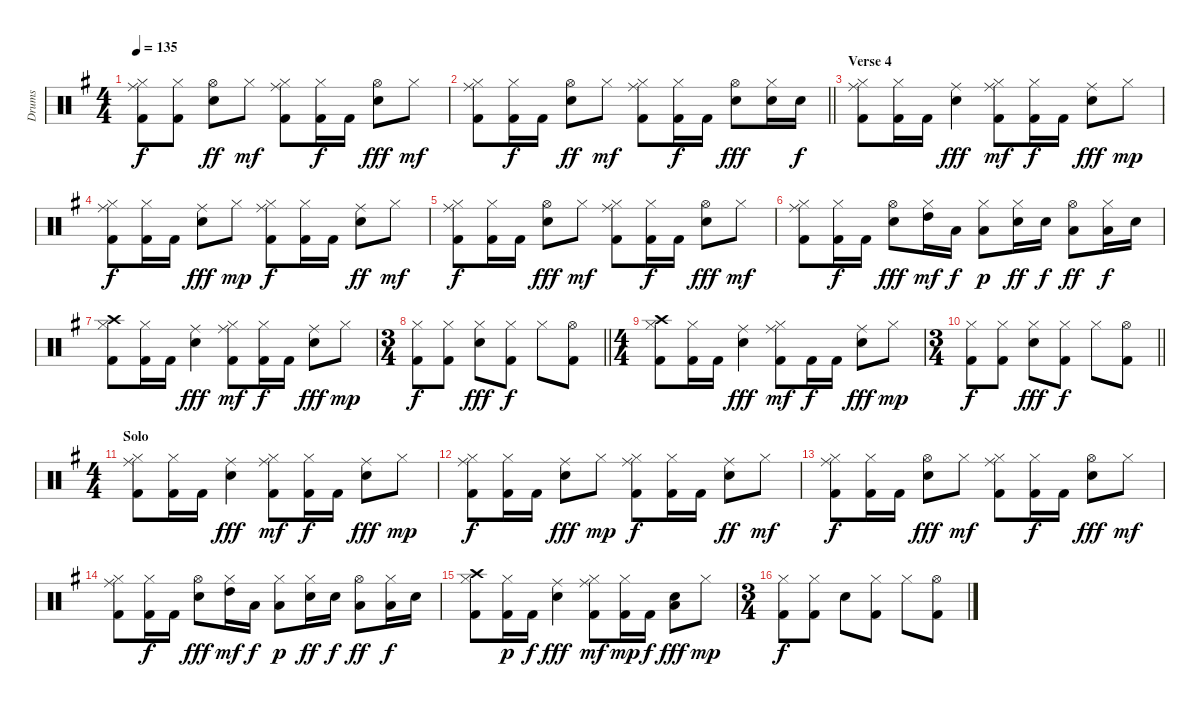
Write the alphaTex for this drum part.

\track ("Drums" "Drums") {instrument percussion}
\staff {score}
\articulation defaults
\ts (4 4)
\tempo 135
\clef neutral
\ks g
("Hi-Hat (closed)" "Ride (middle)" "Kick (hit) 2").8{dy f} ("Hi-Hat (closed)" "Kick (hit) 2").8 ("Hi-Hat (open)" "Electric Snare (hit)").8{dy ff} "Hi-Hat (closed)".8{dy mf} ("Hi-Hat (closed)" "Ride (middle)" "Kick (hit) 2").8 ("Hi-Hat (closed)" "Kick (hit) 2").16{dy f} "Kick (hit) 2".16 ("Hi-Hat (open)" "Electric Snare (hit)").8{dy fff} "Hi-Hat (closed)".8{dy mf} |
\barLineRight lightlight
("Hi-Hat (closed)" "Ride (middle)" "Kick (hit) 2").8 ("Hi-Hat (closed)" "Kick (hit) 2").16{dy f} "Kick (hit) 2".16 ("Hi-Hat (open)" "Electric Snare (hit)").8{dy ff} "Hi-Hat (closed)".8{dy mf} ("Hi-Hat (closed)" "Ride (middle)" "Kick (hit) 2").8 ("Hi-Hat (closed)" "Kick (hit) 2").16{dy f} "Kick (hit) 2".16 ("Hi-Hat (open)" "Electric Snare (hit)").8{dy fff} ("Hi-Hat (closed)" "Electric Snare (hit)").16 "Electric Snare (hit)".16{dy f} |
\section ("" "Verse 4")
("Hi-Hat (closed)" "Ride (middle)" "Kick (hit) 2").8 ("Hi-Hat (closed)" "Kick (hit) 2").16 "Kick (hit) 2".16 ("Ride (middle)" "Electric Snare (hit)").4{dy fff} ("Hi-Hat (closed)" "Ride (middle)" "Kick (hit) 2").8{dy mf} ("Hi-Hat (closed)" "Kick (hit) 2").16{dy f} "Kick (hit) 2".16 ("Ride (middle)" "Electric Snare (hit)").8{dy fff} "Hi-Hat (closed)".8{dy mp} |
("Hi-Hat (closed)" "Ride (middle)" "Kick (hit) 2").8{dy f} ("Hi-Hat (closed)" "Kick (hit) 2").16 "Kick (hit) 2".16 ("Ride (middle)" "Electric Snare (hit)").8{dy fff} "Hi-Hat (closed)".8{dy mp} ("Hi-Hat (closed)" "Ride (middle)" "Kick (hit) 2").8{dy f} ("Hi-Hat (closed)" "Kick (hit) 2").16 "Kick (hit) 2".16 ("Ride (middle)" "Electric Snare (hit)").8{dy ff} "Hi-Hat (closed)".8{dy mf} |
("Hi-Hat (closed)" "Ride (middle)" "Kick (hit) 2").8{dy f} ("Hi-Hat (closed)" "Kick (hit) 2").16 "Kick (hit) 2".16 ("Hi-Hat (open)" "Electric Snare (hit)").8{dy fff} "Hi-Hat (closed)".8{dy mf} ("Hi-Hat (closed)" "Ride (middle)" "Kick (hit) 2").8 ("Hi-Hat (closed)" "Kick (hit) 2").16{dy f} "Kick (hit) 2".16 ("Hi-Hat (open)" "Electric Snare (hit)").8{dy fff} "Hi-Hat (closed)".8{dy mf} |
("Hi-Hat (closed)" "Ride (middle)" "Kick (hit) 2").8 ("Hi-Hat (closed)" "Kick (hit) 2").16{dy f} "Kick (hit) 2".16 ("Hi-Hat (open)" "Electric Snare (hit)").8{dy fff} ("Hi-Hat (closed)" "High Tom (hit)").16{dy mf} "Low Tom (hit)".16{dy f} ("Hi-Hat (closed)" "Low Floor Tom (hit)").8{dy p} ("Hi-Hat (closed)" "Electric Snare (hit)").16{dy ff} "Electric Snare (hit)".16{dy f} ("Hi-Hat (open)" "Low Tom (hit)").8{dy ff} ("Hi-Hat (closed)" "Low Tom (hit)").16{dy f} "Electric Snare (hit)".16 |
("Hi-Hat (closed)" "Crash high (hit)" "Kick (hit) 2").8 ("Hi-Hat (closed)" "Kick (hit) 2").16 "Kick (hit) 2".16 ("Ride (middle)" "Electric Snare (hit)").4{dy fff} ("Hi-Hat (closed)" "Ride (middle)" "Kick (hit) 2").8{dy mf} ("Hi-Hat (closed)" "Kick (hit) 2").16{dy f} "Kick (hit) 2".16 ("Ride (middle)" "Electric Snare (hit)").8{dy fff} "Hi-Hat (closed)".8{dy mp} |
\ts (3 4)
\barLineRight lightlight
("Hi-Hat (closed)" "Kick (hit) 2").8{dy f} ("Hi-Hat (closed)" "Kick (hit) 2").8 ("Hi-Hat (closed)" "Electric Snare (hit)").8{dy fff} ("Hi-Hat (closed)" "Kick (hit) 2").8{dy f} "Hi-Hat (closed)".8 ("Hi-Hat (open)" "Kick (hit) 2").8 |
\ts (4 4)
("Hi-Hat (closed)" "Crash high (hit)" "Kick (hit) 2").8 ("Hi-Hat (closed)" "Kick (hit) 2").16 "Kick (hit) 2".16 ("Ride (middle)" "Electric Snare (hit)").4{dy fff} ("Hi-Hat (closed)" "Ride (middle)" "Kick (hit) 2").8{dy mf} "Kick (hit) 2".16{dy f} "Kick (hit) 2".16 ("Ride (middle)" "Electric Snare (hit)").8{dy fff} "Hi-Hat (closed)".8{dy mp} |
\ts (3 4)
\barLineRight lightlight
("Hi-Hat (closed)" "Kick (hit) 2").8{dy f} ("Hi-Hat (closed)" "Kick (hit) 2").8 ("Hi-Hat (closed)" "Electric Snare (hit)").8{dy fff} ("Hi-Hat (closed)" "Kick (hit) 2").8{dy f} "Hi-Hat (closed)".8 ("Hi-Hat (open)" "Kick (hit) 2").8 |
\ts (4 4)
\section ("" "Solo")
("Hi-Hat (closed)" "Ride (middle)" "Kick (hit) 2").8 ("Hi-Hat (closed)" "Kick (hit) 2").16 "Kick (hit) 2".16 ("Ride (middle)" "Electric Snare (hit)").4{dy fff} ("Hi-Hat (closed)" "Ride (middle)" "Kick (hit) 2").8{dy mf} ("Hi-Hat (closed)" "Kick (hit) 2").16{dy f} "Kick (hit) 2".16 ("Ride (middle)" "Electric Snare (hit)").8{dy fff} "Hi-Hat (closed)".8{dy mp} |
("Hi-Hat (closed)" "Ride (middle)" "Kick (hit) 2").8{dy f} ("Hi-Hat (closed)" "Kick (hit) 2").16 "Kick (hit) 2".16 ("Ride (middle)" "Electric Snare (hit)").8{dy fff} "Hi-Hat (closed)".8{dy mp} ("Hi-Hat (closed)" "Ride (middle)" "Kick (hit) 2").8{dy f} ("Hi-Hat (closed)" "Kick (hit) 2").16 "Kick (hit) 2".16 ("Ride (middle)" "Electric Snare (hit)").8{dy ff} "Hi-Hat (closed)".8{dy mf} |
("Hi-Hat (closed)" "Ride (middle)" "Kick (hit) 2").8{dy f} ("Hi-Hat (closed)" "Kick (hit) 2").16 "Kick (hit) 2".16 ("Hi-Hat (open)" "Electric Snare (hit)").8{dy fff} "Hi-Hat (closed)".8{dy mf} ("Hi-Hat (closed)" "Ride (middle)" "Kick (hit) 2").8 ("Hi-Hat (closed)" "Kick (hit) 2").16{dy f} "Kick (hit) 2".16 ("Hi-Hat (open)" "Electric Snare (hit)").8{dy fff} "Hi-Hat (closed)".8{dy mf} |
("Hi-Hat (closed)" "Ride (middle)" "Kick (hit) 2").8 ("Hi-Hat (closed)" "Kick (hit) 2").16{dy f} "Kick (hit) 2".16 ("Hi-Hat (open)" "Electric Snare (hit)").8{dy fff} ("Hi-Hat (closed)" "High Tom (hit)").16{dy mf} "Low Tom (hit)".16{dy f} ("Hi-Hat (closed)" "Low Floor Tom (hit)").8{dy p} ("Hi-Hat (closed)" "Electric Snare (hit)").16{dy ff} "Electric Snare (hit)".16{dy f} ("Hi-Hat (open)" "Low Tom (hit)").8{dy ff} ("Hi-Hat (closed)" "Low Tom (hit)").16{dy f} "Electric Snare (hit)".16 |
("Hi-Hat (closed)" "Crash high (hit)" "Kick (hit) 2").8 ("Hi-Hat (closed)" "Kick (hit) 2").16{dy p} "Kick (hit) 2".16{dy f} ("Ride (middle)" "Electric Snare (hit)").4{dy fff} ("Hi-Hat (closed)" "Ride (middle)" "Kick (hit) 2").8{dy mf} ("Hi-Hat (closed)" "Kick (hit) 2").16{dy mp} "Kick (hit) 2".16{dy f} ("Low Floor Tom (hit)" "Electric Snare (hit)").8{dy fff} "Hi-Hat (closed)".8{dy mp} |
\ts (3 4)
("Hi-Hat (closed)" "Kick (hit) 2").8{dy f} ("Hi-Hat (closed)" "Kick (hit) 2").8 "Electric Snare (hit)".8 ("Hi-Hat (closed)" "Kick (hit) 2").8 "Hi-Hat (closed)".8 ("Hi-Hat (open)" "Kick (hit) 2").8
